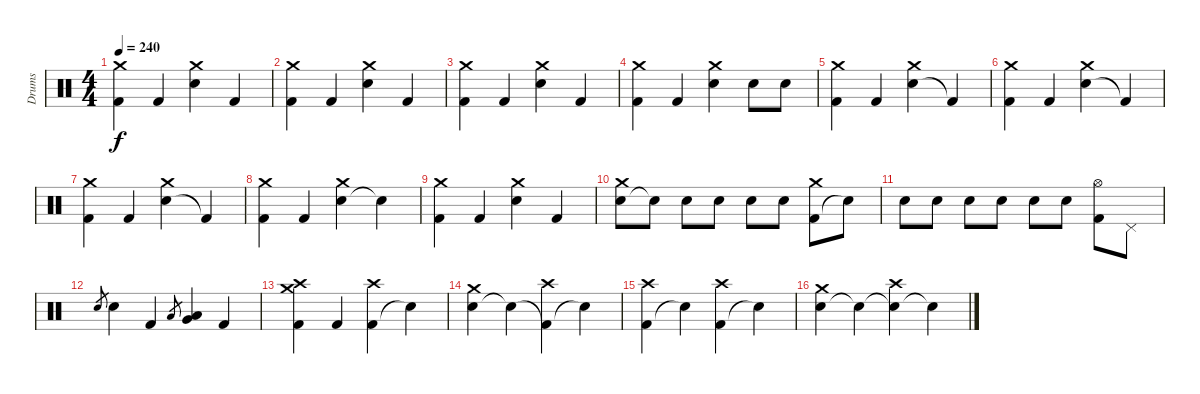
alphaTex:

\track ("Drums" "Drums") {instrument percussion}
\staff {score}
\articulation defaults
\ts (4 4)
\tempo 240
\clef neutral
\ks c
("Kick (hit) 2" "Crash medium (hit)").4{dy f} "Kick (hit) 2".4 ("Electric Snare (hit)" "Crash medium (hit)").4 "Kick (hit) 2".4 |
("Kick (hit) 2" "Crash medium (hit)").4 "Kick (hit) 2".4 ("Electric Snare (hit)" "Crash medium (hit)").4 "Kick (hit) 2".4 |
("Kick (hit) 2" "Crash medium (hit)").4 "Kick (hit) 2".4 ("Electric Snare (hit)" "Crash medium (hit)").4 "Kick (hit) 2".4 |
("Kick (hit) 2" "Crash medium (hit)").4 "Kick (hit) 2".4 ("Electric Snare (hit)" "Crash medium (hit)").4 "Electric Snare (hit)".8 "Electric Snare (hit)".8 |
("Kick (hit) 2" "Crash medium (hit)").4 "Kick (hit) 2".4 ("Electric Snare (hit)" "Crash medium (hit)").4 "Kick (hit) 2"{t}.4 |
("Kick (hit) 2" "Crash medium (hit)").4 "Kick (hit) 2".4 ("Electric Snare (hit)" "Crash medium (hit)").4 "Kick (hit) 2"{t}.4 |
("Kick (hit) 2" "Crash medium (hit)").4 "Kick (hit) 2".4 ("Electric Snare (hit)" "Crash medium (hit)").4 "Kick (hit) 2"{t}.4 |
("Kick (hit) 2" "Crash medium (hit)").4 "Kick (hit) 2".4 ("Electric Snare (hit)" "Crash medium (hit)").4 "Snare (hit)"{t}.4 |
("Kick (hit) 2" "Crash medium (hit)").4 "Kick (hit) 2".4 ("Electric Snare (hit)" "Crash medium (hit)").4 "Kick (hit) 2".4 |
("Electric Snare (hit)" "Crash medium (hit)").8 "Snare (hit)"{t}.8 "Electric Snare (hit)".8 "Electric Snare (hit)".8 "Electric Snare (hit)".8 "Electric Snare (hit)".8 ("Kick (hit) 2" "Crash medium (hit)").8 "Snare (hit)"{t}.8 |
"Electric Snare (hit)".8 "Electric Snare (hit)".8 "Electric Snare (hit)".8 "Electric Snare (hit)".8 "Electric Snare (hit)".8 "Electric Snare (hit)".8 ("Kick (hit) 2" "Hi-Hat (open)").8 "Pedal Hi-Hat (hit)".8 |
"Electric Snare (hit)".8{gr} "Electric Snare (hit)".4 "Kick (hit) 2".4 "Low Tom (hit)".8{gr} ("Low Tom (hit)" "Very Low Tom (hit)").4 "Kick (hit) 2".4 |
("Kick (hit) 2" "Crash medium (hit)" "Crash high (hit)").4 "Kick (hit) 2".4 ("Kick (hit) 2" "Crash high (hit)").4 "Snare (hit)"{t}.4 |
("Electric Snare (hit)" "Crash medium (hit)").4 "Snare (hit)"{t}.4 ("Kick (hit) 2"{t} "Crash high (hit)").4 "Snare (hit)"{t}.4 |
("Kick (hit) 2" "Crash high (hit)").4 "Snare (hit)"{t}.4 ("Kick (hit) 2" "Crash high (hit)").4 "Snare (hit)"{t}.4 |
("Electric Snare (hit)" "Crash medium (hit)").4 "Snare (hit)"{t}.4 ("Snare (hit)"{t} "Crash high (hit)").4 "Snare (hit)"{t}.4
